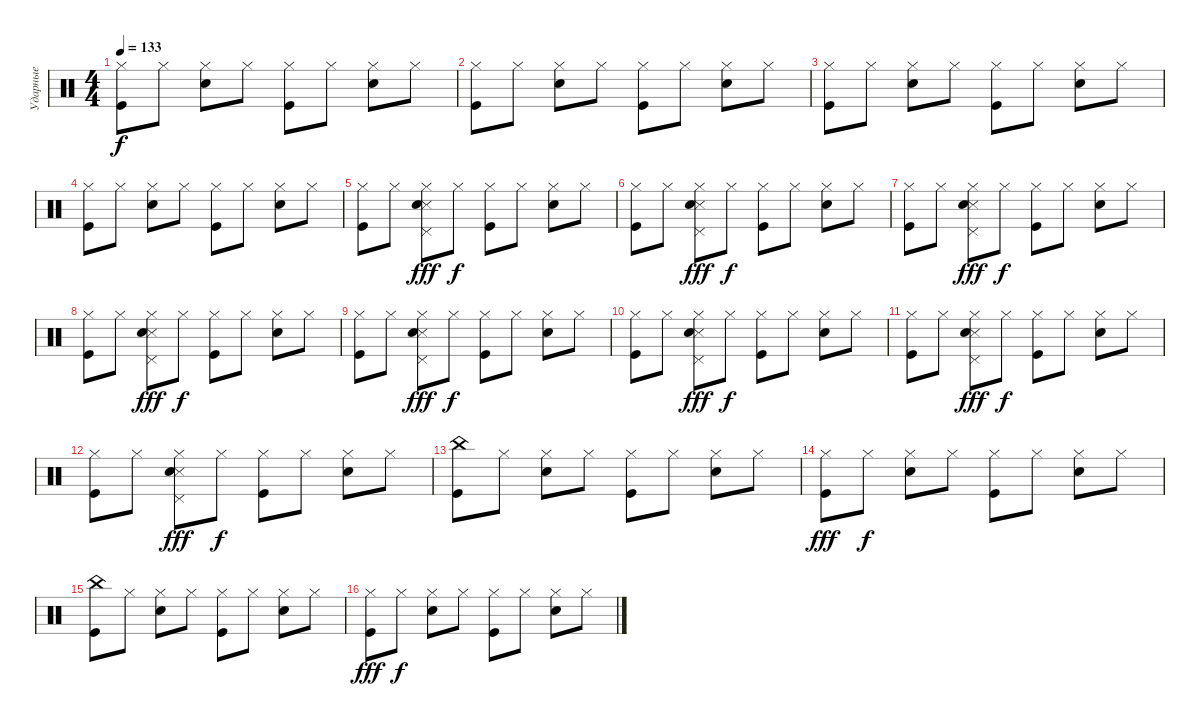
\track ("Ударные" "Ударные") {instrument percussion}
\staff {score}
\articulation defaults
\ts (4 4)
\tempo 133
\clef neutral
\ks c
("Hi-Hat (closed)" "Kick (hit)").8{dy f} "Hi-Hat (closed)".8 ("Hi-Hat (closed)" "Electric Snare (hit)").8 "Hi-Hat (closed)".8 ("Hi-Hat (closed)" "Kick (hit)").8 "Hi-Hat (closed)".8 ("Hi-Hat (closed)" "Electric Snare (hit)").8 "Hi-Hat (closed)".8 |
("Hi-Hat (closed)" "Kick (hit)").8 "Hi-Hat (closed)".8 ("Hi-Hat (closed)" "Electric Snare (hit)").8 "Hi-Hat (closed)".8 ("Hi-Hat (closed)" "Kick (hit)").8 "Hi-Hat (closed)".8 ("Hi-Hat (closed)" "Electric Snare (hit)").8 "Hi-Hat (closed)".8 |
("Hi-Hat (closed)" "Kick (hit)").8 "Hi-Hat (closed)".8 ("Hi-Hat (closed)" "Electric Snare (hit)").8 "Hi-Hat (closed)".8 ("Hi-Hat (closed)" "Kick (hit)").8 "Hi-Hat (closed)".8 ("Hi-Hat (closed)" "Electric Snare (hit)").8 "Hi-Hat (closed)".8 |
("Hi-Hat (closed)" "Kick (hit)").8 "Hi-Hat (closed)".8 ("Hi-Hat (closed)" "Electric Snare (hit)").8 "Hi-Hat (closed)".8 ("Hi-Hat (closed)" "Kick (hit)").8 "Hi-Hat (closed)".8 ("Hi-Hat (closed)" "Electric Snare (hit)").8 "Hi-Hat (closed)".8 |
("Hi-Hat (closed)" "Kick (hit)").8 "Hi-Hat (closed)".8 ("Snare (side stick) 3" "Pedal Hi-Hat (hit)" "Hi-Hat (closed)" "Electric Snare (hit)").8{dy fff} "Hi-Hat (closed)".8{dy f} ("Hi-Hat (closed)" "Kick (hit)").8 "Hi-Hat (closed)".8 ("Hi-Hat (closed)" "Electric Snare (hit)").8 "Hi-Hat (closed)".8 |
("Hi-Hat (closed)" "Kick (hit)").8 "Hi-Hat (closed)".8 ("Snare (side stick) 3" "Pedal Hi-Hat (hit)" "Hi-Hat (closed)" "Electric Snare (hit)").8{dy fff} "Hi-Hat (closed)".8{dy f} ("Hi-Hat (closed)" "Kick (hit)").8 "Hi-Hat (closed)".8 ("Hi-Hat (closed)" "Electric Snare (hit)").8 "Hi-Hat (closed)".8 |
("Hi-Hat (closed)" "Kick (hit)").8 "Hi-Hat (closed)".8 ("Snare (side stick) 3" "Pedal Hi-Hat (hit)" "Hi-Hat (closed)" "Electric Snare (hit)").8{dy fff} "Hi-Hat (closed)".8{dy f} ("Hi-Hat (closed)" "Kick (hit)").8 "Hi-Hat (closed)".8 ("Hi-Hat (closed)" "Electric Snare (hit)").8 "Hi-Hat (closed)".8 |
("Hi-Hat (closed)" "Kick (hit)").8 "Hi-Hat (closed)".8 ("Snare (side stick) 3" "Pedal Hi-Hat (hit)" "Hi-Hat (closed)" "Electric Snare (hit)").8{dy fff} "Hi-Hat (closed)".8{dy f} ("Hi-Hat (closed)" "Kick (hit)").8 "Hi-Hat (closed)".8 ("Hi-Hat (closed)" "Electric Snare (hit)").8 "Hi-Hat (closed)".8 |
("Hi-Hat (closed)" "Kick (hit)").8 "Hi-Hat (closed)".8 ("Snare (side stick) 3" "Pedal Hi-Hat (hit)" "Hi-Hat (closed)" "Electric Snare (hit)").8{dy fff} "Hi-Hat (closed)".8{dy f} ("Hi-Hat (closed)" "Kick (hit)").8 "Hi-Hat (closed)".8 ("Hi-Hat (closed)" "Electric Snare (hit)").8 "Hi-Hat (closed)".8 |
("Hi-Hat (closed)" "Kick (hit)").8 "Hi-Hat (closed)".8 ("Snare (side stick) 3" "Pedal Hi-Hat (hit)" "Hi-Hat (closed)" "Electric Snare (hit)").8{dy fff} "Hi-Hat (closed)".8{dy f} ("Hi-Hat (closed)" "Kick (hit)").8 "Hi-Hat (closed)".8 ("Hi-Hat (closed)" "Electric Snare (hit)").8 "Hi-Hat (closed)".8 |
("Hi-Hat (closed)" "Kick (hit)").8 "Hi-Hat (closed)".8 ("Snare (side stick) 3" "Pedal Hi-Hat (hit)" "Hi-Hat (closed)" "Electric Snare (hit)").8{dy fff} "Hi-Hat (closed)".8{dy f} ("Hi-Hat (closed)" "Kick (hit)").8 "Hi-Hat (closed)".8 ("Hi-Hat (closed)" "Electric Snare (hit)").8 "Hi-Hat (closed)".8 |
("Hi-Hat (closed)" "Kick (hit)").8 "Hi-Hat (closed)".8 ("Snare (side stick) 3" "Pedal Hi-Hat (hit)" "Hi-Hat (closed)" "Electric Snare (hit)").8{dy fff} "Hi-Hat (closed)".8{dy f} ("Hi-Hat (closed)" "Kick (hit)").8 "Hi-Hat (closed)".8 ("Hi-Hat (closed)" "Electric Snare (hit)").8 "Hi-Hat (closed)".8 |
("China (hit)" "Kick (hit)").8 "Hi-Hat (closed)".8 ("Hi-Hat (closed)" "Electric Snare (hit)").8 "Hi-Hat (closed)".8 ("Hi-Hat (closed)" "Kick (hit)").8 "Hi-Hat (closed)".8 ("Hi-Hat (closed)" "Electric Snare (hit)").8 "Hi-Hat (closed)".8 |
("Hi-Hat (closed)" "Kick (hit)").8{dy fff} "Hi-Hat (closed)".8{dy f} ("Hi-Hat (closed)" "Electric Snare (hit)").8 "Hi-Hat (closed)".8 ("Hi-Hat (closed)" "Kick (hit)").8 "Hi-Hat (closed)".8 ("Hi-Hat (closed)" "Electric Snare (hit)").8 "Hi-Hat (closed)".8 |
("China (hit)" "Kick (hit)").8 "Hi-Hat (closed)".8 ("Hi-Hat (closed)" "Electric Snare (hit)").8 "Hi-Hat (closed)".8 ("Hi-Hat (closed)" "Kick (hit)").8 "Hi-Hat (closed)".8 ("Hi-Hat (closed)" "Electric Snare (hit)").8 "Hi-Hat (closed)".8 |
("Hi-Hat (closed)" "Kick (hit)").8{dy fff} "Hi-Hat (closed)".8{dy f} ("Hi-Hat (closed)" "Electric Snare (hit)").8 "Hi-Hat (closed)".8 ("Hi-Hat (closed)" "Kick (hit)").8 "Hi-Hat (closed)".8 ("Hi-Hat (closed)" "Electric Snare (hit)").8 "Hi-Hat (closed)".8
